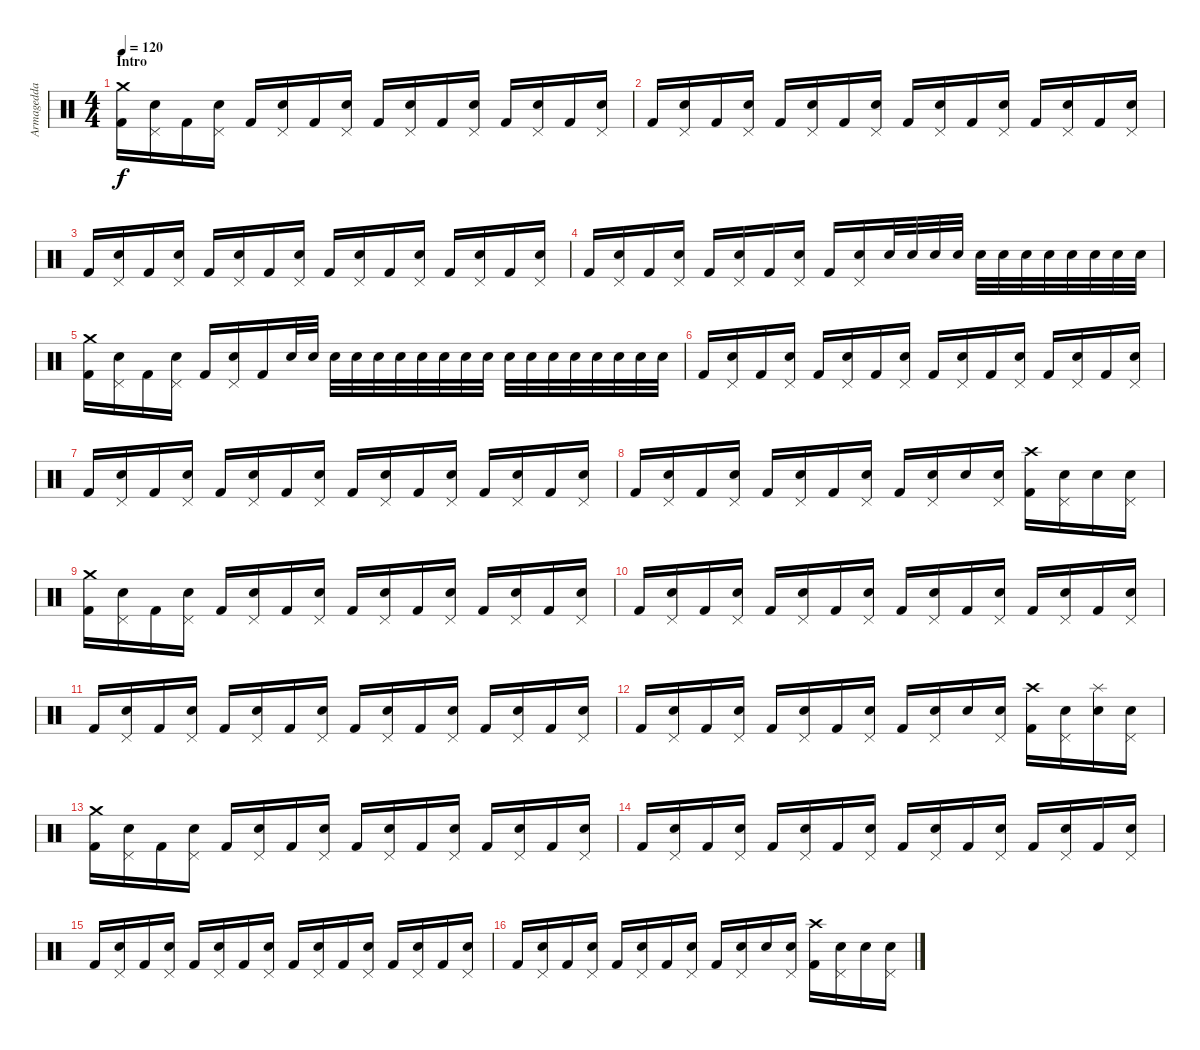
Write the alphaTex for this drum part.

\track ("Armagedda" "Armagedda") {instrument percussion}
\staff {score}
\articulation defaults
\ts (4 4)
\section ("" "Intro")
\tempo 120
\tempo 152
\tempo 120
\clef neutral
\ks c
("Crash medium (hit)" "Kick (hit) 2").16{dy f} ("Pedal Hi-Hat (hit)" "Electric Snare (hit)").16 "Kick (hit) 2".16 ("Pedal Hi-Hat (hit)" "Electric Snare (hit)").16 "Kick (hit) 2".16 ("Pedal Hi-Hat (hit)" "Electric Snare (hit)").16 "Kick (hit) 2".16 ("Pedal Hi-Hat (hit)" "Electric Snare (hit)").16 "Kick (hit) 2".16 ("Pedal Hi-Hat (hit)" "Electric Snare (hit)").16 "Kick (hit) 2".16 ("Pedal Hi-Hat (hit)" "Electric Snare (hit)").16 "Kick (hit) 2".16 ("Pedal Hi-Hat (hit)" "Electric Snare (hit)").16 "Kick (hit) 2".16 ("Pedal Hi-Hat (hit)" "Electric Snare (hit)").16 |
"Kick (hit) 2".16 ("Pedal Hi-Hat (hit)" "Electric Snare (hit)").16 "Kick (hit) 2".16 ("Pedal Hi-Hat (hit)" "Electric Snare (hit)").16 "Kick (hit) 2".16 ("Pedal Hi-Hat (hit)" "Electric Snare (hit)").16 "Kick (hit) 2".16 ("Pedal Hi-Hat (hit)" "Electric Snare (hit)").16 "Kick (hit) 2".16 ("Pedal Hi-Hat (hit)" "Electric Snare (hit)").16 "Kick (hit) 2".16 ("Pedal Hi-Hat (hit)" "Electric Snare (hit)").16 "Kick (hit) 2".16 ("Pedal Hi-Hat (hit)" "Electric Snare (hit)").16 "Kick (hit) 2".16 ("Pedal Hi-Hat (hit)" "Electric Snare (hit)").16 |
"Kick (hit) 2".16 ("Pedal Hi-Hat (hit)" "Electric Snare (hit)").16 "Kick (hit) 2".16 ("Pedal Hi-Hat (hit)" "Electric Snare (hit)").16 "Kick (hit) 2".16 ("Pedal Hi-Hat (hit)" "Electric Snare (hit)").16 "Kick (hit) 2".16 ("Pedal Hi-Hat (hit)" "Electric Snare (hit)").16 "Kick (hit) 2".16 ("Pedal Hi-Hat (hit)" "Electric Snare (hit)").16 "Kick (hit) 2".16 ("Pedal Hi-Hat (hit)" "Electric Snare (hit)").16 "Kick (hit) 2".16 ("Pedal Hi-Hat (hit)" "Electric Snare (hit)").16 "Kick (hit) 2".16 ("Pedal Hi-Hat (hit)" "Electric Snare (hit)").16 |
"Kick (hit) 2".16 ("Pedal Hi-Hat (hit)" "Electric Snare (hit)").16 "Kick (hit) 2".16 ("Pedal Hi-Hat (hit)" "Electric Snare (hit)").16 "Kick (hit) 2".16 ("Pedal Hi-Hat (hit)" "Electric Snare (hit)").16 "Kick (hit) 2".16 ("Pedal Hi-Hat (hit)" "Electric Snare (hit)").16 "Kick (hit) 2".16 ("Pedal Hi-Hat (hit)" "Electric Snare (hit)").16 "Electric Snare (hit)".32 "Electric Snare (hit)".32 "Electric Snare (hit)".32 "Electric Snare (hit)".32 "Electric Snare (hit)".32 "Electric Snare (hit)".32 "Electric Snare (hit)".32 "Electric Snare (hit)".32 "Electric Snare (hit)".32 "Electric Snare (hit)".32 "Electric Snare (hit)".32 "Electric Snare (hit)".32 |
("Crash medium (hit)" "Kick (hit) 2").16 ("Pedal Hi-Hat (hit)" "Electric Snare (hit)").16 "Kick (hit) 2".16 ("Pedal Hi-Hat (hit)" "Electric Snare (hit)").16 "Kick (hit) 2".16 ("Pedal Hi-Hat (hit)" "Electric Snare (hit)").16 "Kick (hit) 2".16 "Electric Snare (hit)".32 "Electric Snare (hit)".32 "Electric Snare (hit)".32 "Electric Snare (hit)".32 "Electric Snare (hit)".32 "Electric Snare (hit)".32 "Electric Snare (hit)".32 "Electric Snare (hit)".32 "Electric Snare (hit)".32 "Electric Snare (hit)".32 "Electric Snare (hit)".32 "Electric Snare (hit)".32 "Electric Snare (hit)".32 "Electric Snare (hit)".32 "Electric Snare (hit)".32 "Electric Snare (hit)".32 "Electric Snare (hit)".32 "Electric Snare (hit)".32 |
"Kick (hit) 2".16 ("Pedal Hi-Hat (hit)" "Electric Snare (hit)").16 "Kick (hit) 2".16 ("Pedal Hi-Hat (hit)" "Electric Snare (hit)").16 "Kick (hit) 2".16 ("Pedal Hi-Hat (hit)" "Electric Snare (hit)").16 "Kick (hit) 2".16 ("Pedal Hi-Hat (hit)" "Electric Snare (hit)").16 "Kick (hit) 2".16 ("Pedal Hi-Hat (hit)" "Electric Snare (hit)").16 "Kick (hit) 2".16 ("Pedal Hi-Hat (hit)" "Electric Snare (hit)").16 "Kick (hit) 2".16 ("Pedal Hi-Hat (hit)" "Electric Snare (hit)").16 "Kick (hit) 2".16 ("Pedal Hi-Hat (hit)" "Electric Snare (hit)").16 |
"Kick (hit) 2".16 ("Pedal Hi-Hat (hit)" "Electric Snare (hit)").16 "Kick (hit) 2".16 ("Pedal Hi-Hat (hit)" "Electric Snare (hit)").16 "Kick (hit) 2".16 ("Pedal Hi-Hat (hit)" "Electric Snare (hit)").16 "Kick (hit) 2".16 ("Pedal Hi-Hat (hit)" "Electric Snare (hit)").16 "Kick (hit) 2".16 ("Pedal Hi-Hat (hit)" "Electric Snare (hit)").16 "Kick (hit) 2".16 ("Pedal Hi-Hat (hit)" "Electric Snare (hit)").16 "Kick (hit) 2".16 ("Pedal Hi-Hat (hit)" "Electric Snare (hit)").16 "Kick (hit) 2".16 ("Pedal Hi-Hat (hit)" "Electric Snare (hit)").16 |
"Kick (hit) 2".16 ("Pedal Hi-Hat (hit)" "Electric Snare (hit)").16 "Kick (hit) 2".16 ("Pedal Hi-Hat (hit)" "Electric Snare (hit)").16 "Kick (hit) 2".16 ("Pedal Hi-Hat (hit)" "Electric Snare (hit)").16 "Kick (hit) 2".16 ("Pedal Hi-Hat (hit)" "Electric Snare (hit)").16 "Kick (hit) 2".16 ("Pedal Hi-Hat (hit)" "Electric Snare (hit)").16 "Electric Snare (hit)".16 ("Pedal Hi-Hat (hit)" "Electric Snare (hit)").16 ("Crash high (hit)" "Kick (hit) 2").16 ("Pedal Hi-Hat (hit)" "Electric Snare (hit)").16 "Electric Snare (hit)".16 ("Pedal Hi-Hat (hit)" "Electric Snare (hit)").16 |
("Crash medium (hit)" "Kick (hit) 2").16 ("Pedal Hi-Hat (hit)" "Electric Snare (hit)").16 "Kick (hit) 2".16 ("Pedal Hi-Hat (hit)" "Electric Snare (hit)").16 "Kick (hit) 2".16 ("Pedal Hi-Hat (hit)" "Electric Snare (hit)").16 "Kick (hit) 2".16 ("Pedal Hi-Hat (hit)" "Electric Snare (hit)").16 "Kick (hit) 2".16 ("Pedal Hi-Hat (hit)" "Electric Snare (hit)").16 "Kick (hit) 2".16 ("Pedal Hi-Hat (hit)" "Electric Snare (hit)").16 "Kick (hit) 2".16 ("Pedal Hi-Hat (hit)" "Electric Snare (hit)").16 "Kick (hit) 2".16 ("Pedal Hi-Hat (hit)" "Electric Snare (hit)").16 |
"Kick (hit) 2".16 ("Pedal Hi-Hat (hit)" "Electric Snare (hit)").16 "Kick (hit) 2".16 ("Pedal Hi-Hat (hit)" "Electric Snare (hit)").16 "Kick (hit) 2".16 ("Pedal Hi-Hat (hit)" "Electric Snare (hit)").16 "Kick (hit) 2".16 ("Pedal Hi-Hat (hit)" "Electric Snare (hit)").16 "Kick (hit) 2".16 ("Pedal Hi-Hat (hit)" "Electric Snare (hit)").16 "Kick (hit) 2".16 ("Pedal Hi-Hat (hit)" "Electric Snare (hit)").16 "Kick (hit) 2".16 ("Pedal Hi-Hat (hit)" "Electric Snare (hit)").16 "Kick (hit) 2".16 ("Pedal Hi-Hat (hit)" "Electric Snare (hit)").16 |
"Kick (hit) 2".16 ("Pedal Hi-Hat (hit)" "Electric Snare (hit)").16 "Kick (hit) 2".16 ("Pedal Hi-Hat (hit)" "Electric Snare (hit)").16 "Kick (hit) 2".16 ("Pedal Hi-Hat (hit)" "Electric Snare (hit)").16 "Kick (hit) 2".16 ("Pedal Hi-Hat (hit)" "Electric Snare (hit)").16 "Kick (hit) 2".16 ("Pedal Hi-Hat (hit)" "Electric Snare (hit)").16 "Kick (hit) 2".16 ("Pedal Hi-Hat (hit)" "Electric Snare (hit)").16 "Kick (hit) 2".16 ("Pedal Hi-Hat (hit)" "Electric Snare (hit)").16 "Kick (hit) 2".16 ("Pedal Hi-Hat (hit)" "Electric Snare (hit)").16 |
"Kick (hit) 2".16 ("Pedal Hi-Hat (hit)" "Electric Snare (hit)").16 "Kick (hit) 2".16 ("Pedal Hi-Hat (hit)" "Electric Snare (hit)").16 "Kick (hit) 2".16 ("Pedal Hi-Hat (hit)" "Electric Snare (hit)").16 "Kick (hit) 2".16 ("Pedal Hi-Hat (hit)" "Electric Snare (hit)").16 "Kick (hit) 2".16 ("Pedal Hi-Hat (hit)" "Electric Snare (hit)").16 "Electric Snare (hit)".16 ("Pedal Hi-Hat (hit)" "Electric Snare (hit)").16 ("Crash high (hit)" "Kick (hit) 2").16 ("Pedal Hi-Hat (hit)" "Electric Snare (hit)").16 ("Splash (hit)" "Electric Snare (hit)").16 ("Pedal Hi-Hat (hit)" "Electric Snare (hit)").16 |
("Crash medium (hit)" "Kick (hit) 2").16 ("Pedal Hi-Hat (hit)" "Electric Snare (hit)").16 "Kick (hit) 2".16 ("Pedal Hi-Hat (hit)" "Electric Snare (hit)").16 "Kick (hit) 2".16 ("Pedal Hi-Hat (hit)" "Electric Snare (hit)").16 "Kick (hit) 2".16 ("Pedal Hi-Hat (hit)" "Electric Snare (hit)").16 "Kick (hit) 2".16 ("Pedal Hi-Hat (hit)" "Electric Snare (hit)").16 "Kick (hit) 2".16 ("Pedal Hi-Hat (hit)" "Electric Snare (hit)").16 "Kick (hit) 2".16 ("Pedal Hi-Hat (hit)" "Electric Snare (hit)").16 "Kick (hit) 2".16 ("Pedal Hi-Hat (hit)" "Electric Snare (hit)").16 |
"Kick (hit) 2".16 ("Pedal Hi-Hat (hit)" "Electric Snare (hit)").16 "Kick (hit) 2".16 ("Pedal Hi-Hat (hit)" "Electric Snare (hit)").16 "Kick (hit) 2".16 ("Pedal Hi-Hat (hit)" "Electric Snare (hit)").16 "Kick (hit) 2".16 ("Pedal Hi-Hat (hit)" "Electric Snare (hit)").16 "Kick (hit) 2".16 ("Pedal Hi-Hat (hit)" "Electric Snare (hit)").16 "Kick (hit) 2".16 ("Pedal Hi-Hat (hit)" "Electric Snare (hit)").16 "Kick (hit) 2".16 ("Pedal Hi-Hat (hit)" "Electric Snare (hit)").16 "Kick (hit) 2".16 ("Pedal Hi-Hat (hit)" "Electric Snare (hit)").16 |
"Kick (hit) 2".16 ("Pedal Hi-Hat (hit)" "Electric Snare (hit)").16 "Kick (hit) 2".16 ("Pedal Hi-Hat (hit)" "Electric Snare (hit)").16 "Kick (hit) 2".16 ("Pedal Hi-Hat (hit)" "Electric Snare (hit)").16 "Kick (hit) 2".16 ("Pedal Hi-Hat (hit)" "Electric Snare (hit)").16 "Kick (hit) 2".16 ("Pedal Hi-Hat (hit)" "Electric Snare (hit)").16 "Kick (hit) 2".16 ("Pedal Hi-Hat (hit)" "Electric Snare (hit)").16 "Kick (hit) 2".16 ("Pedal Hi-Hat (hit)" "Electric Snare (hit)").16 "Kick (hit) 2".16 ("Pedal Hi-Hat (hit)" "Electric Snare (hit)").16 |
"Kick (hit) 2".16 ("Pedal Hi-Hat (hit)" "Electric Snare (hit)").16 "Kick (hit) 2".16 ("Pedal Hi-Hat (hit)" "Electric Snare (hit)").16 "Kick (hit) 2".16 ("Pedal Hi-Hat (hit)" "Electric Snare (hit)").16 "Kick (hit) 2".16 ("Pedal Hi-Hat (hit)" "Electric Snare (hit)").16 "Kick (hit) 2".16 ("Pedal Hi-Hat (hit)" "Electric Snare (hit)").16 "Electric Snare (hit)".16 ("Pedal Hi-Hat (hit)" "Electric Snare (hit)").16 ("Crash high (hit)" "Kick (hit) 2").16 ("Pedal Hi-Hat (hit)" "Electric Snare (hit)").16 "Electric Snare (hit)".16 ("Pedal Hi-Hat (hit)" "Electric Snare (hit)").16
